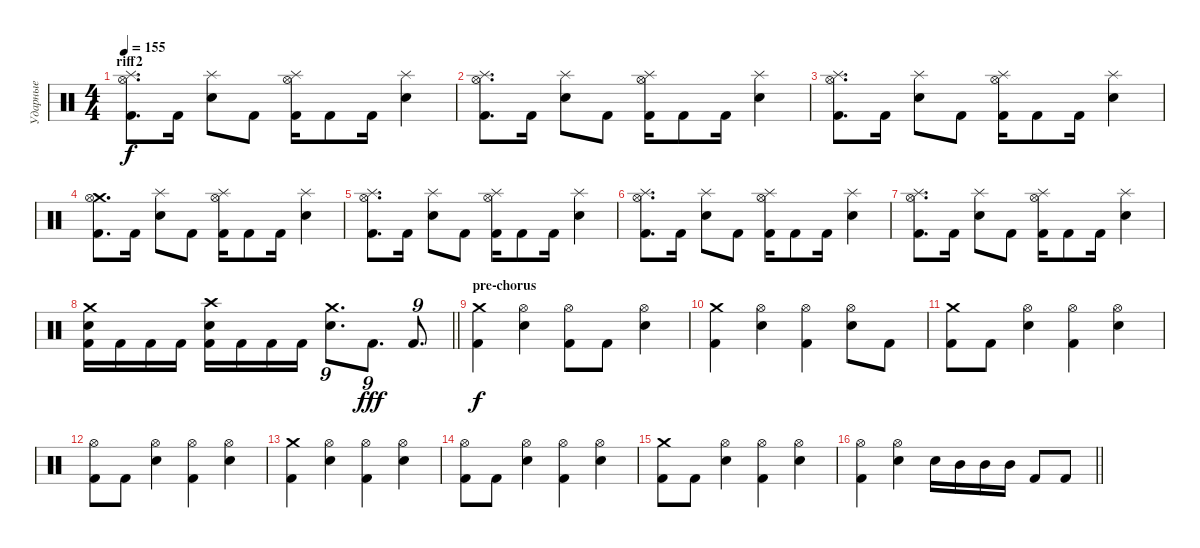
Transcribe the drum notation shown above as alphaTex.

\track ("Ударные" "Ударные") {instrument percussion}
\staff {score}
\articulation defaults
\ts (4 4)
\section ("" "riff2")
\tempo 155
\clef neutral
\ks c
("Splash (hit)" "Hi-Hat (open)" "Kick (hit) 2").8{d dy f} "Kick (hit) 2".16 ("Splash (hit)" "Electric Snare (hit)").8 "Kick (hit) 2".8 ("Splash (hit)" "Hi-Hat (open)" "Kick (hit) 2").16 "Kick (hit) 2".8 "Kick (hit) 2".16 ("Splash (hit)" "Electric Snare (hit)").4 |
("Splash (hit)" "Hi-Hat (open)" "Kick (hit) 2").8{d} "Kick (hit) 2".16 ("Splash (hit)" "Electric Snare (hit)").8 "Kick (hit) 2".8 ("Splash (hit)" "Hi-Hat (open)" "Kick (hit) 2").16 "Kick (hit) 2".8 "Kick (hit) 2".16 ("Splash (hit)" "Electric Snare (hit)").4 |
("Splash (hit)" "Hi-Hat (open)" "Kick (hit) 2").8{d} "Kick (hit) 2".16 ("Splash (hit)" "Electric Snare (hit)").8 "Kick (hit) 2".8 ("Splash (hit)" "Hi-Hat (open)" "Kick (hit) 2").16 "Kick (hit) 2".8 "Kick (hit) 2".16 ("Splash (hit)" "Electric Snare (hit)").4 |
("Crash medium (hit)" "Hi-Hat (open)" "Kick (hit) 2").8{d} "Kick (hit) 2".16 ("Splash (hit)" "Electric Snare (hit)").8 "Kick (hit) 2".8 ("Splash (hit)" "Hi-Hat (open)" "Kick (hit) 2").16 "Kick (hit) 2".8 "Kick (hit) 2".16 ("Splash (hit)" "Electric Snare (hit)").4 |
("Splash (hit)" "Hi-Hat (open)" "Kick (hit) 2").8{d} "Kick (hit) 2".16 ("Splash (hit)" "Electric Snare (hit)").8 "Kick (hit) 2".8 ("Splash (hit)" "Hi-Hat (open)" "Kick (hit) 2").16 "Kick (hit) 2".8 "Kick (hit) 2".16 ("Splash (hit)" "Electric Snare (hit)").4 |
("Splash (hit)" "Hi-Hat (open)" "Kick (hit) 2").8{d} "Kick (hit) 2".16 ("Splash (hit)" "Electric Snare (hit)").8 "Kick (hit) 2".8 ("Splash (hit)" "Hi-Hat (open)" "Kick (hit) 2").16 "Kick (hit) 2".8 "Kick (hit) 2".16 ("Splash (hit)" "Electric Snare (hit)").4 |
("Splash (hit)" "Hi-Hat (open)" "Kick (hit) 2").8{d} "Kick (hit) 2".16 ("Splash (hit)" "Electric Snare (hit)").8 "Kick (hit) 2".8 ("Splash (hit)" "Hi-Hat (open)" "Kick (hit) 2").16 "Kick (hit) 2".8 "Kick (hit) 2".16 ("Splash (hit)" "Electric Snare (hit)").4 |
\barLineRight lightlight
("Crash medium (hit)" "Electric Snare (hit)" "Kick (hit) 2").16 "Kick (hit) 2".16 "Kick (hit) 2".16 "Kick (hit) 2".16 ("Crash high (hit)" "Electric Snare (hit)" "Kick (hit) 2").16 "Kick (hit) 2".16 "Kick (hit) 2".16 "Kick (hit) 2".16 ("Crash medium (hit)" "Electric Snare (hit)").8{d tu (9 8)} "Kick (hit) 2".8{d tu (9 8) dy fff} "Kick (hit) 2".8{d tu (9 8)} |
\section ("" "pre-chorus")
("Crash medium (hit)" "Kick (hit) 2").4{dy f} ("Hi-Hat (open)" "Electric Snare (hit)").4 ("Hi-Hat (open)" "Kick (hit) 2").8 "Kick (hit) 2".8 ("Hi-Hat (open)" "Electric Snare (hit)").4 |
("Crash medium (hit)" "Kick (hit) 2").4 ("Hi-Hat (open)" "Electric Snare (hit)").4 ("Hi-Hat (open)" "Kick (hit) 2").4 ("Hi-Hat (open)" "Electric Snare (hit)").8 "Kick (hit) 2".8 |
("Crash medium (hit)" "Kick (hit) 2").8 "Kick (hit) 2".8 ("Hi-Hat (open)" "Electric Snare (hit)").4 ("Hi-Hat (open)" "Kick (hit) 2").4 ("Hi-Hat (open)" "Electric Snare (hit)").4 |
("Hi-Hat (open)" "Kick (hit) 2").8 "Kick (hit) 2".8 ("Hi-Hat (open)" "Electric Snare (hit)").4 ("Hi-Hat (open)" "Kick (hit) 2").4 ("Hi-Hat (open)" "Electric Snare (hit)").4 |
("Crash medium (hit)" "Kick (hit) 2").4 ("Hi-Hat (open)" "Electric Snare (hit)").4 ("Hi-Hat (open)" "Kick (hit) 2").4 ("Hi-Hat (open)" "Electric Snare (hit)").4 |
("Hi-Hat (open)" "Kick (hit) 2").8 "Kick (hit) 2".8 ("Hi-Hat (open)" "Electric Snare (hit)").4 ("Hi-Hat (open)" "Kick (hit) 2").4 ("Hi-Hat (open)" "Electric Snare (hit)").4 |
("Crash medium (hit)" "Kick (hit) 2").8 "Kick (hit) 2".8 ("Hi-Hat (open)" "Electric Snare (hit)").4 ("Hi-Hat (open)" "Kick (hit) 2").4 ("Hi-Hat (open)" "Electric Snare (hit)").4 |
\barLineRight lightlight
("Hi-Hat (open)" "Kick (hit) 2").4 ("Hi-Hat (open)" "Electric Snare (hit)").4 "Electric Snare (hit)".16 "Mid Tom (hit)".16 "Mid Tom (hit)".16 "Mid Tom (hit)".16 "Kick (hit) 2".8 "Kick (hit) 2".8
